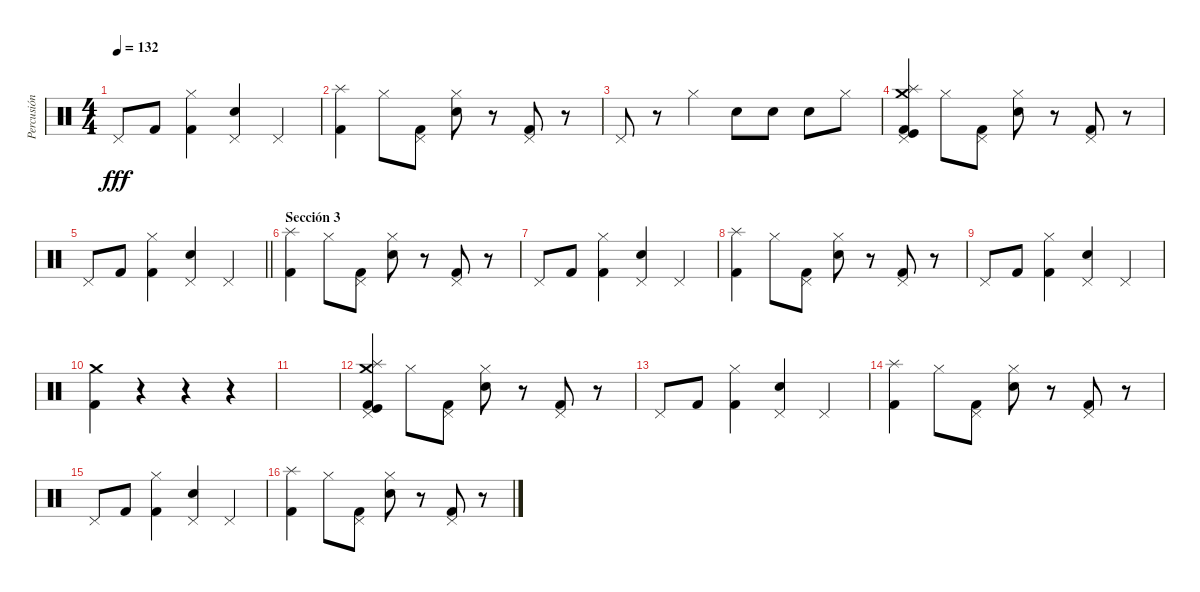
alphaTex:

\track ("Percusión" "Percusión") {instrument percussion}
\staff {score}
\articulation defaults
\ts (4 4)
\tempo 132
\clef neutral
\ks c "Pedal Hi-Hat (hit)".8{dy fff} "Kick (hit) 2".8
("Hi-Hat (closed)" "Kick (hit) 2").4 ("Pedal Hi-Hat (hit)" "Snare (hit) 2").4 "Pedal Hi-Hat (hit)".4 |
("Splash (hit)" "Kick (hit) 2").4 "Hi-Hat (closed)".8 ("Pedal Hi-Hat (hit)" "Kick (hit) 2").8 ("Hi-Hat (closed)" "Snare (hit) 2").8 r.8 ("Pedal Hi-Hat (hit)" "Kick (hit) 2").8 r.8 |
"Pedal Hi-Hat (hit)".8 r.8 "Hi-Hat (closed)".4 "Snare (hit) 2".8 "Snare (hit) 2".8 "Snare (hit) 2".8 "Hi-Hat (closed)".8 |
("Splash (hit)" "Crash medium (hit)" "Pedal Hi-Hat (hit)" "Kick (hit) 2" "Kick (hit)").4 "Hi-Hat (closed)".8 ("Pedal Hi-Hat (hit)" "Kick (hit) 2").8 ("Hi-Hat (closed)" "Snare (hit) 2").8 r.8 ("Pedal Hi-Hat (hit)" "Kick (hit) 2").8 r.8 |
\barLineRight lightlight "Pedal Hi-Hat (hit)".8 "Kick (hit) 2".8
("Hi-Hat (closed)" "Kick (hit) 2").4 ("Pedal Hi-Hat (hit)" "Snare (hit) 2").4 "Pedal Hi-Hat (hit)".4 |
\section ("" "Sección 3")
("Splash (hit)" "Kick (hit) 2").4 "Hi-Hat (closed)".8 ("Pedal Hi-Hat (hit)" "Kick (hit) 2").8 ("Hi-Hat (closed)" "Snare (hit) 2").8 r.8 ("Pedal Hi-Hat (hit)" "Kick (hit) 2").8 r.8 |
"Pedal Hi-Hat (hit)".8 "Kick (hit) 2".8 ("Hi-Hat (closed)" "Kick (hit) 2").4 ("Pedal Hi-Hat (hit)" "Snare (hit) 2").4 "Pedal Hi-Hat (hit)".4 |
("Splash (hit)" "Kick (hit) 2").4 "Hi-Hat (closed)".8 ("Pedal Hi-Hat (hit)" "Kick (hit) 2").8 ("Hi-Hat (closed)" "Snare (hit) 2").8 r.8 ("Pedal Hi-Hat (hit)" "Kick (hit) 2").8 r.8 |
"Pedal Hi-Hat (hit)".8 "Kick (hit) 2".8 ("Hi-Hat (closed)" "Kick (hit) 2").4 ("Pedal Hi-Hat (hit)" "Snare (hit) 2").4 "Pedal Hi-Hat (hit)".4 |
("Crash medium (hit)" "Kick (hit) 2").4 r.4 r.4 r.4 |
|
("Crash medium (hit)" "Splash (hit)" "Pedal Hi-Hat (hit)" "Kick (hit) 2" "Kick (hit)").4 "Hi-Hat (closed)".8 ("Pedal Hi-Hat (hit)" "Kick (hit) 2").8 ("Hi-Hat (closed)" "Snare (hit) 2").8 r.8 ("Pedal Hi-Hat (hit)" "Kick (hit) 2").8 r.8 |
"Pedal Hi-Hat (hit)".8 "Kick (hit) 2".8 ("Hi-Hat (closed)" "Kick (hit) 2").4 ("Pedal Hi-Hat (hit)" "Snare (hit) 2").4 "Pedal Hi-Hat (hit)".4 |
("Splash (hit)" "Kick (hit) 2").4 "Hi-Hat (closed)".8 ("Pedal Hi-Hat (hit)" "Kick (hit) 2").8 ("Hi-Hat (closed)" "Snare (hit) 2").8 r.8 ("Pedal Hi-Hat (hit)" "Kick (hit) 2").8 r.8 |
"Pedal Hi-Hat (hit)".8 "Kick (hit) 2".8 ("Hi-Hat (closed)" "Kick (hit) 2").4 ("Pedal Hi-Hat (hit)" "Snare (hit) 2").4 "Pedal Hi-Hat (hit)".4 |
("Splash (hit)" "Kick (hit) 2").4 "Hi-Hat (closed)".8 ("Pedal Hi-Hat (hit)" "Kick (hit) 2").8 ("Hi-Hat (closed)" "Snare (hit) 2").8 r.8 ("Pedal Hi-Hat (hit)" "Kick (hit) 2").8 r.8
